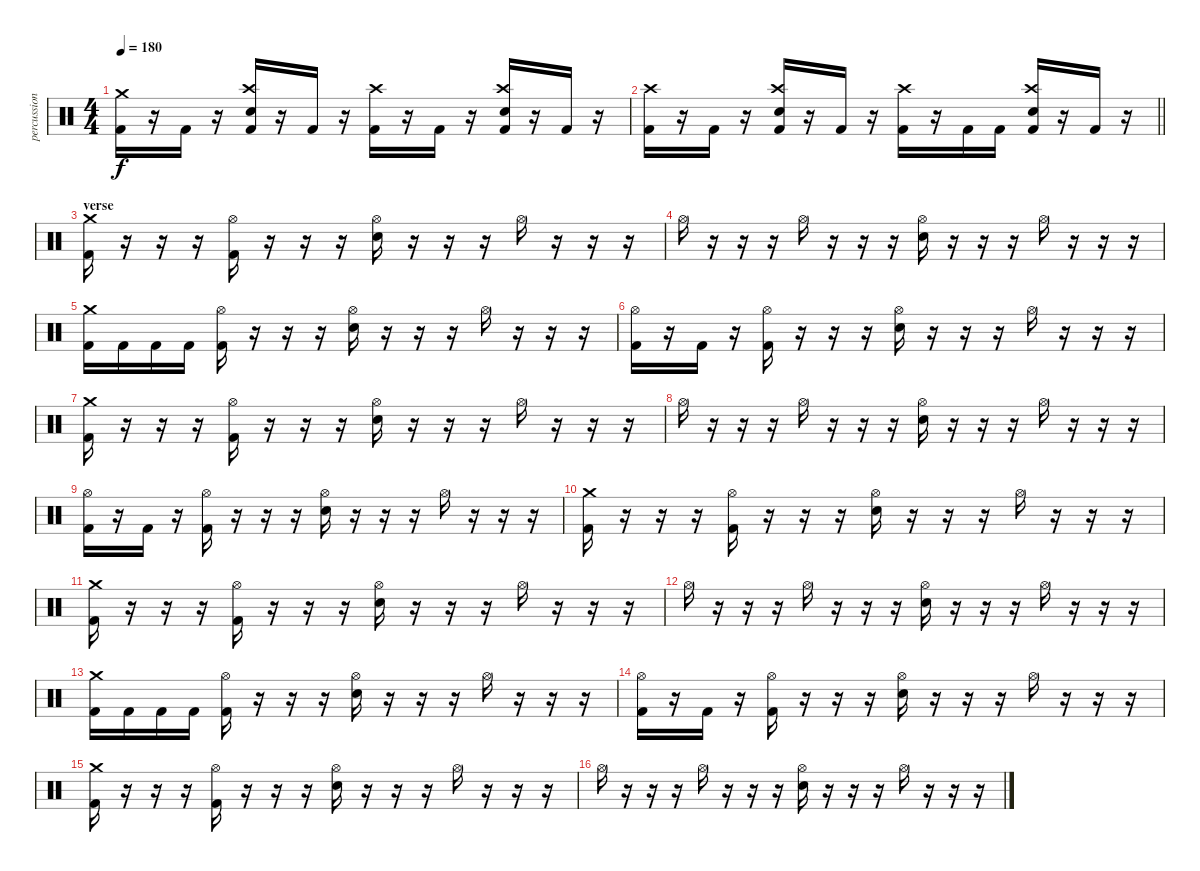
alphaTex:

\track ("percussion" "percussion") {instrument percussion}
\staff {score}
\articulation defaults
\ts (4 4)
\tempo 180
\clef neutral
\ks c
("Crash medium (hit)" "Kick (hit) 2").16{dy f} r.16 "Kick (hit) 2".16 r.16 ("Crash high (hit)" "Electric Snare (hit)" "Kick (hit) 2").16 r.16 "Kick (hit) 2".16 r.16 ("Crash high (hit)" "Kick (hit) 2").16 r.16 "Kick (hit) 2".16 r.16 ("Crash high (hit)" "Electric Snare (hit)" "Kick (hit) 2").16 r.16 "Kick (hit) 2".16 r.16 |
\barLineRight lightlight
("Crash high (hit)" "Kick (hit) 2").16 r.16 "Kick (hit) 2".16 r.16 ("Crash high (hit)" "Electric Snare (hit)" "Kick (hit) 2").16 r.16 "Kick (hit) 2".16 r.16 ("Crash high (hit)" "Kick (hit) 2").16 r.16 "Kick (hit) 2".16 "Kick (hit) 2".16 ("Crash high (hit)" "Electric Snare (hit)" "Kick (hit) 2").16 r.16 "Kick (hit) 2".16 r.16 |
\section ("" "verse")
("Crash medium (hit)" "Kick (hit) 2").16 r.16 r.16 r.16 ("Hi-Hat (open)" "Kick (hit) 2").16 r.16 r.16 r.16 ("Hi-Hat (open)" "Electric Snare (hit)").16 r.16 r.16 r.16 "Hi-Hat (open)".16 r.16 r.16 r.16 |
"Hi-Hat (open)".16 r.16 r.16 r.16 "Hi-Hat (open)".16 r.16 r.16 r.16 ("Hi-Hat (open)" "Electric Snare (hit)").16 r.16 r.16 r.16 "Hi-Hat (open)".16 r.16 r.16 r.16 |
("Crash medium (hit)" "Kick (hit) 2").16 "Kick (hit) 2".16 "Kick (hit) 2".16 "Kick (hit) 2".16 ("Hi-Hat (open)" "Kick (hit) 2").16 r.16 r.16 r.16 ("Hi-Hat (open)" "Electric Snare (hit)").16 r.16 r.16 r.16 "Hi-Hat (open)".16 r.16 r.16 r.16 |
("Hi-Hat (open)" "Kick (hit) 2").16 r.16 "Kick (hit) 2".16 r.16 ("Hi-Hat (open)" "Kick (hit) 2").16 r.16 r.16 r.16 ("Hi-Hat (open)" "Electric Snare (hit)").16 r.16 r.16 r.16 "Hi-Hat (open)".16 r.16 r.16 r.16 |
("Crash medium (hit)" "Kick (hit) 2").16 r.16 r.16 r.16 ("Hi-Hat (open)" "Kick (hit) 2").16 r.16 r.16 r.16 ("Hi-Hat (open)" "Electric Snare (hit)").16 r.16 r.16 r.16 "Hi-Hat (open)".16 r.16 r.16 r.16 |
"Hi-Hat (open)".16 r.16 r.16 r.16 "Hi-Hat (open)".16 r.16 r.16 r.16 ("Hi-Hat (open)" "Electric Snare (hit)").16 r.16 r.16 r.16 "Hi-Hat (open)".16 r.16 r.16 r.16 |
("Hi-Hat (open)" "Kick (hit) 2").16 r.16 "Kick (hit) 2".16 r.16 ("Hi-Hat (open)" "Kick (hit) 2").16 r.16 r.16 r.16 ("Hi-Hat (open)" "Electric Snare (hit)").16 r.16 r.16 r.16 "Hi-Hat (open)".16 r.16 r.16 r.16 |
("Crash medium (hit)" "Kick (hit) 2").16 r.16 r.16 r.16 ("Hi-Hat (open)" "Kick (hit) 2").16 r.16 r.16 r.16 ("Hi-Hat (open)" "Electric Snare (hit)").16 r.16 r.16 r.16 "Hi-Hat (open)".16 r.16 r.16 r.16 |
("Crash medium (hit)" "Kick (hit) 2").16 r.16 r.16 r.16 ("Hi-Hat (open)" "Kick (hit) 2").16 r.16 r.16 r.16 ("Hi-Hat (open)" "Electric Snare (hit)").16 r.16 r.16 r.16 "Hi-Hat (open)".16 r.16 r.16 r.16 |
"Hi-Hat (open)".16 r.16 r.16 r.16 "Hi-Hat (open)".16 r.16 r.16 r.16 ("Hi-Hat (open)" "Electric Snare (hit)").16 r.16 r.16 r.16 "Hi-Hat (open)".16 r.16 r.16 r.16 |
("Crash medium (hit)" "Kick (hit) 2").16 "Kick (hit) 2".16 "Kick (hit) 2".16 "Kick (hit) 2".16 ("Hi-Hat (open)" "Kick (hit) 2").16 r.16 r.16 r.16 ("Hi-Hat (open)" "Electric Snare (hit)").16 r.16 r.16 r.16 "Hi-Hat (open)".16 r.16 r.16 r.16 |
("Hi-Hat (open)" "Kick (hit) 2").16 r.16 "Kick (hit) 2".16 r.16 ("Hi-Hat (open)" "Kick (hit) 2").16 r.16 r.16 r.16 ("Hi-Hat (open)" "Electric Snare (hit)").16 r.16 r.16 r.16 "Hi-Hat (open)".16 r.16 r.16 r.16 |
("Crash medium (hit)" "Kick (hit) 2").16 r.16 r.16 r.16 ("Hi-Hat (open)" "Kick (hit) 2").16 r.16 r.16 r.16 ("Hi-Hat (open)" "Electric Snare (hit)").16 r.16 r.16 r.16 "Hi-Hat (open)".16 r.16 r.16 r.16 |
"Hi-Hat (open)".16 r.16 r.16 r.16 "Hi-Hat (open)".16 r.16 r.16 r.16 ("Hi-Hat (open)" "Electric Snare (hit)").16 r.16 r.16 r.16 "Hi-Hat (open)".16 r.16 r.16 r.16
